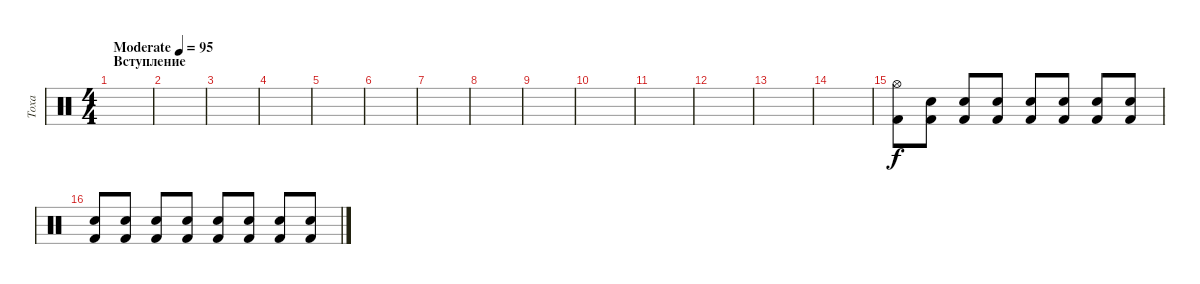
\track ("Toxa" "Toxa") {instrument percussion}
\staff {score}
\articulation defaults
\ts (4 4)
\section ("" "Вступление")
\tempo (95 "Moderate")
\clef neutral
\ks c
|
|
|
|
|
|
|
|
|
|
|
|
|
|
("Hi-Hat (open)" "Kick (hit) 2").8 ("Electric Snare (hit)" "Kick (hit) 2").8 ("Electric Snare (hit)" "Kick (hit) 2").8 ("Electric Snare (hit)" "Kick (hit) 2").8 ("Electric Snare (hit)" "Kick (hit) 2").8 ("Electric Snare (hit)" "Kick (hit) 2").8 ("Electric Snare (hit)" "Kick (hit) 2").8 ("Electric Snare (hit)" "Kick (hit) 2").8 |
("Electric Snare (hit)" "Kick (hit) 2").8 ("Electric Snare (hit)" "Kick (hit) 2").8 ("Electric Snare (hit)" "Kick (hit) 2").8 ("Electric Snare (hit)" "Kick (hit) 2").8 ("Electric Snare (hit)" "Kick (hit) 2").8 ("Electric Snare (hit)" "Kick (hit) 2").8 ("Electric Snare (hit)" "Kick (hit) 2").8 ("Electric Snare (hit)" "Kick (hit) 2").8
